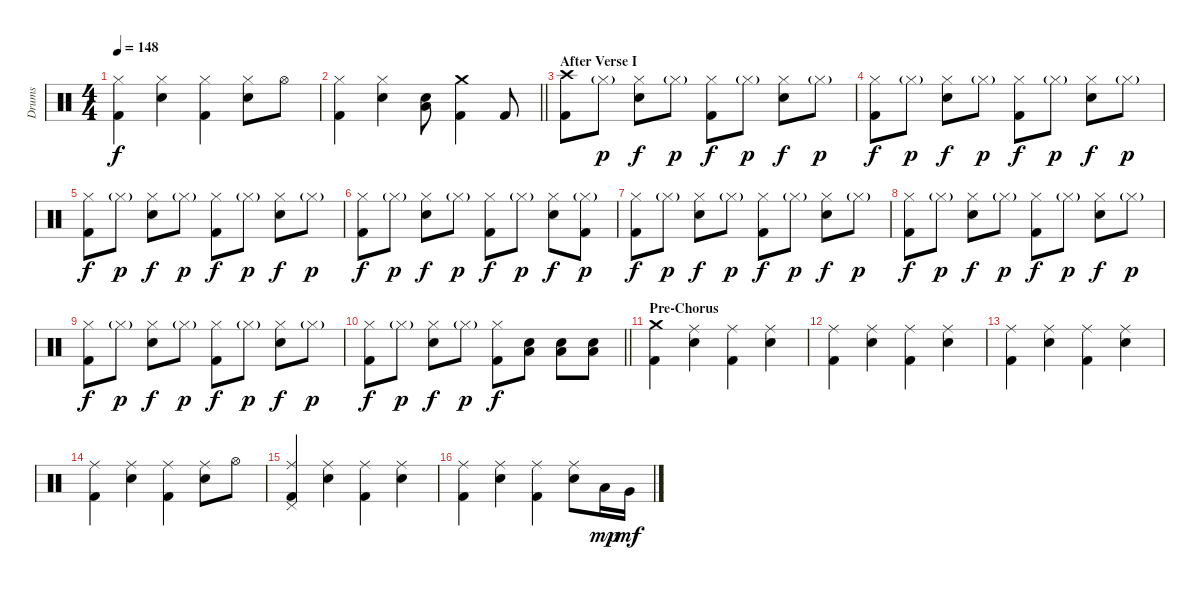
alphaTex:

\track ("Drums" "Drums") {instrument percussion}
\staff {score}
\articulation defaults
\ts (4 4)
\tempo 148
\clef neutral
\ks c
("Hi-Hat (closed)" "Kick (hit) 2").4{dy f} ("Hi-Hat (closed)" "Electric Snare (hit)").4 ("Hi-Hat (closed)" "Kick (hit) 2").4 ("Hi-Hat (closed)" "Electric Snare (hit)").8 "Hi-Hat (open)".8 |
\barLineRight lightlight
("Hi-Hat (closed)" "Kick (hit) 2").4 ("Hi-Hat (closed)" "Electric Snare (hit)").4 ("Low Floor Tom (hit)" "Electric Snare (hit)").8 ("Crash medium (hit)" "Kick (hit) 2").4 "Kick (hit) 2".8 |
\section ("" "After Verse I")
("Crash high (hit)" "Kick (hit) 2").8 "Hi-Hat (closed)"{g}.8{dy p} ("Hi-Hat (closed)" "Electric Snare (hit)").8{dy f} "Hi-Hat (closed)"{g}.8{dy p} ("Hi-Hat (closed)" "Kick (hit) 2").8{dy f} "Hi-Hat (closed)"{g}.8{dy p} ("Hi-Hat (closed)" "Electric Snare (hit)").8{dy f} "Hi-Hat (closed)"{g}.8{dy p} |
("Hi-Hat (closed)" "Kick (hit) 2").8{dy f} "Hi-Hat (closed)"{g}.8{dy p} ("Hi-Hat (closed)" "Electric Snare (hit)").8{dy f} "Hi-Hat (closed)"{g}.8{dy p} ("Hi-Hat (closed)" "Kick (hit) 2").8{dy f} "Hi-Hat (closed)"{g}.8{dy p} ("Hi-Hat (closed)" "Electric Snare (hit)").8{dy f} "Hi-Hat (closed)"{g}.8{dy p} |
("Hi-Hat (closed)" "Kick (hit) 2").8{dy f} "Hi-Hat (closed)"{g}.8{dy p} ("Hi-Hat (closed)" "Electric Snare (hit)").8{dy f} "Hi-Hat (closed)"{g}.8{dy p} ("Hi-Hat (closed)" "Kick (hit) 2").8{dy f} "Hi-Hat (closed)"{g}.8{dy p} ("Hi-Hat (closed)" "Electric Snare (hit)").8{dy f} "Hi-Hat (closed)"{g}.8{dy p} |
("Hi-Hat (closed)" "Kick (hit) 2").8{dy f} "Hi-Hat (closed)"{g}.8{dy p} ("Hi-Hat (closed)" "Electric Snare (hit)").8{dy f} "Hi-Hat (closed)"{g}.8{dy p} ("Hi-Hat (closed)" "Kick (hit) 2").8{dy f} "Hi-Hat (closed)"{g}.8{dy p} ("Hi-Hat (closed)" "Electric Snare (hit)").8{dy f} ("Hi-Hat (closed)"{g} "Kick (hit) 2").8{dy p} |
("Hi-Hat (closed)" "Kick (hit) 2").8{dy f} "Hi-Hat (closed)"{g}.8{dy p} ("Hi-Hat (closed)" "Electric Snare (hit)").8{dy f} "Hi-Hat (closed)"{g}.8{dy p} ("Hi-Hat (closed)" "Kick (hit) 2").8{dy f} "Hi-Hat (closed)"{g}.8{dy p} ("Hi-Hat (closed)" "Electric Snare (hit)").8{dy f} "Hi-Hat (closed)"{g}.8{dy p} |
("Hi-Hat (closed)" "Kick (hit) 2").8{dy f} "Hi-Hat (closed)"{g}.8{dy p} ("Hi-Hat (closed)" "Electric Snare (hit)").8{dy f} "Hi-Hat (closed)"{g}.8{dy p} ("Hi-Hat (closed)" "Kick (hit) 2").8{dy f} "Hi-Hat (closed)"{g}.8{dy p} ("Hi-Hat (closed)" "Electric Snare (hit)").8{dy f} "Hi-Hat (closed)"{g}.8{dy p} |
("Hi-Hat (closed)" "Kick (hit) 2").8{dy f} "Hi-Hat (closed)"{g}.8{dy p} ("Hi-Hat (closed)" "Electric Snare (hit)").8{dy f} "Hi-Hat (closed)"{g}.8{dy p} ("Hi-Hat (closed)" "Kick (hit) 2").8{dy f} "Hi-Hat (closed)"{g}.8{dy p} ("Hi-Hat (closed)" "Electric Snare (hit)").8{dy f} "Hi-Hat (closed)"{g}.8{dy p} |
\barLineRight lightlight
("Hi-Hat (closed)" "Kick (hit) 2").8{dy f} "Hi-Hat (closed)"{g}.8{dy p} ("Hi-Hat (closed)" "Electric Snare (hit)").8{dy f} "Hi-Hat (closed)"{g}.8{dy p} ("Hi-Hat (closed)" "Kick (hit) 2").8{dy f} ("Low Floor Tom (hit)" "Electric Snare (hit)").8 ("Low Floor Tom (hit)" "Electric Snare (hit)").8 ("Low Floor Tom (hit)" "Electric Snare (hit)").8 |
\section ("" "Pre-Chorus")
("Crash medium (hit)" "Kick (hit) 2").4 ("Ride (middle)" "Electric Snare (hit)").4 ("Ride (middle)" "Kick (hit) 2").4 ("Ride (middle)" "Electric Snare (hit)").4 |
("Ride (middle)" "Kick (hit) 2").4 ("Ride (middle)" "Electric Snare (hit)").4 ("Ride (middle)" "Kick (hit) 2").4 ("Ride (middle)" "Electric Snare (hit)").4 |
("Ride (middle)" "Kick (hit) 2").4 ("Ride (middle)" "Electric Snare (hit)").4 ("Ride (middle)" "Kick (hit) 2").4 ("Ride (middle)" "Electric Snare (hit)").4 |
("Ride (middle)" "Kick (hit) 2").4 ("Ride (middle)" "Electric Snare (hit)").4 ("Ride (middle)" "Kick (hit) 2").4 ("Ride (middle)" "Electric Snare (hit)").8 "Hi-Hat (open)".8 |
("Ride (middle)" "Kick (hit) 2" "Pedal Hi-Hat (hit)").4 ("Ride (middle)" "Electric Snare (hit)").4 ("Ride (middle)" "Kick (hit) 2").4 ("Ride (middle)" "Electric Snare (hit)").4 |
("Ride (middle)" "Kick (hit) 2").4 ("Ride (middle)" "Electric Snare (hit)").4 ("Ride (middle)" "Kick (hit) 2").4 ("Ride (middle)" "Electric Snare (hit)").8 "Low Tom (hit)".16{dy mp} "Very Low Tom (hit)".16{dy mf}
